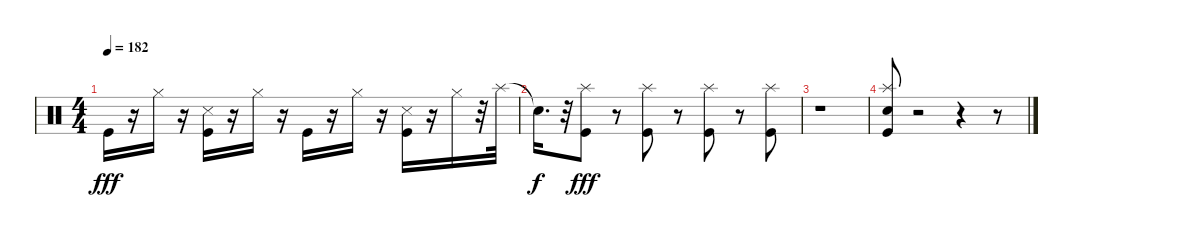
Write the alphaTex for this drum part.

\track "" {instrument percussion}
\staff {score}
\articulation defaults
\ts (4 4)
\tempo 182
\clef neutral
\ks c "Kick (hit)".16{dy fff}
r.16 "Hi-Hat (closed)".16 r.16 ("Kick (hit)" "Snare (side stick) 3").16 r.16 "Hi-Hat (closed)".16 r.16 "Kick (hit)".16 r.16 "Hi-Hat (closed)".16 r.16 ("Kick (hit)" "Snare (side stick) 3").16 r.16 "Hi-Hat (closed)".16 r.32 "Splash (hit)".32 |
"Snare (hit)"{t}.16{d dy f} r.32 ("Kick (hit)" "Splash (hit)").8{dy fff} r.8 ("Kick (hit)" "Splash (hit)").8 r.8 ("Splash (hit)" "Kick (hit)").8 r.8 ("Kick (hit)" "Splash (hit)").8 |
r.1 |
("Kick (hit)" "Electric Snare (hit)" "Splash (hit)").8 r.2 r.4 r.8
